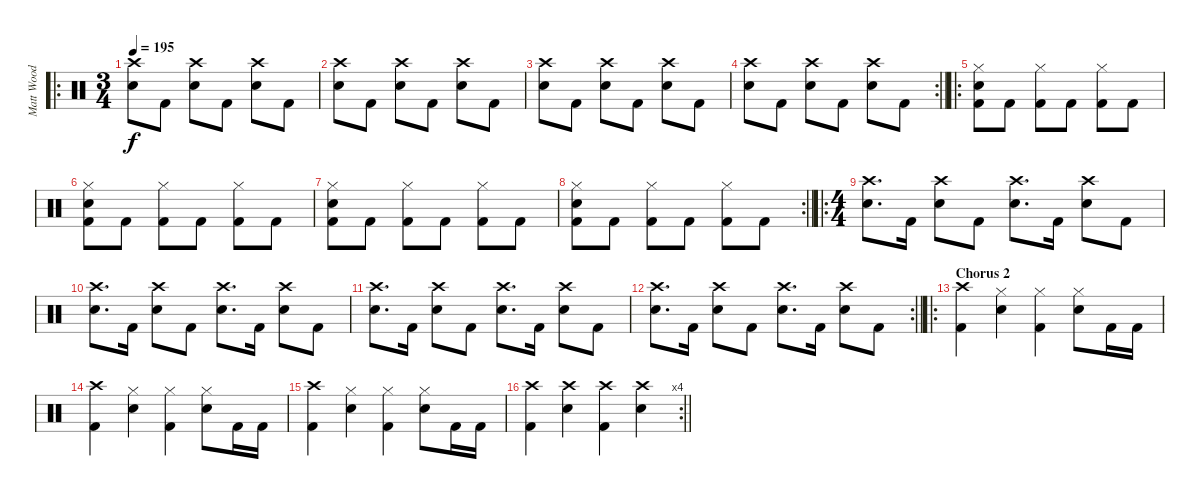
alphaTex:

\track ("Matt Wood" "Matt Wood") {instrument percussion}
\staff {score}
\articulation defaults
\ro
\ts (3 4)
\tempo 195
\clef neutral
\ks c
("Crash high (hit)" "Snare (hit) 2").8{dy f} "Kick (hit) 2".8 ("Crash high (hit)" "Snare (hit) 2").8 "Kick (hit) 2".8 ("Crash high (hit)" "Snare (hit) 2").8 "Kick (hit) 2".8 |
("Crash high (hit)" "Snare (hit) 2").8 "Kick (hit) 2".8 ("Crash high (hit)" "Snare (hit) 2").8 "Kick (hit) 2".8 ("Crash high (hit)" "Snare (hit) 2").8 "Kick (hit) 2".8 |
("Crash high (hit)" "Snare (hit) 2").8 "Kick (hit) 2".8 ("Crash high (hit)" "Snare (hit) 2").8 "Kick (hit) 2".8 ("Crash high (hit)" "Snare (hit) 2").8 "Kick (hit) 2".8 |
\rc 2
\barLineRight lightlight
("Crash high (hit)" "Snare (hit) 2").8 "Kick (hit) 2".8 ("Crash high (hit)" "Snare (hit) 2").8 "Kick (hit) 2".8 ("Crash high (hit)" "Snare (hit) 2").8 "Kick (hit) 2".8 |
\ro
("Hi-Hat (closed)" "Snare (hit) 2" "Kick (hit) 2").8 "Kick (hit) 2".8 ("Hi-Hat (closed)" "Kick (hit) 2").8 "Kick (hit) 2".8 ("Hi-Hat (closed)" "Kick (hit) 2").8 "Kick (hit) 2".8 |
("Hi-Hat (closed)" "Snare (hit) 2" "Kick (hit) 2").8 "Kick (hit) 2".8 ("Hi-Hat (closed)" "Kick (hit) 2").8 "Kick (hit) 2".8 ("Hi-Hat (closed)" "Kick (hit) 2").8 "Kick (hit) 2".8 |
("Hi-Hat (closed)" "Snare (hit) 2" "Kick (hit) 2").8 "Kick (hit) 2".8 ("Hi-Hat (closed)" "Kick (hit) 2").8 "Kick (hit) 2".8 ("Hi-Hat (closed)" "Kick (hit) 2").8 "Kick (hit) 2".8 |
\rc 2
\barLineRight lightlight
("Hi-Hat (closed)" "Snare (hit) 2" "Kick (hit) 2").8 "Kick (hit) 2".8 ("Hi-Hat (closed)" "Kick (hit) 2").8 "Kick (hit) 2".8 ("Hi-Hat (closed)" "Kick (hit) 2").8 "Kick (hit) 2".8 |
\ro
\ts (4 4)
("Crash high (hit)" "Snare (hit) 2").8{d} "Kick (hit) 2".16 ("Crash high (hit)" "Snare (hit) 2").8 "Kick (hit) 2".8 ("Crash high (hit)" "Snare (hit) 2").8{d} "Kick (hit) 2".16 ("Crash high (hit)" "Snare (hit) 2").8 "Kick (hit) 2".8 |
("Crash high (hit)" "Snare (hit) 2").8{d} "Kick (hit) 2".16 ("Crash high (hit)" "Snare (hit) 2").8 "Kick (hit) 2".8 ("Crash high (hit)" "Snare (hit) 2").8{d} "Kick (hit) 2".16 ("Crash high (hit)" "Snare (hit) 2").8 "Kick (hit) 2".8 |
("Crash high (hit)" "Snare (hit) 2").8{d} "Kick (hit) 2".16 ("Crash high (hit)" "Snare (hit) 2").8 "Kick (hit) 2".8 ("Crash high (hit)" "Snare (hit) 2").8{d} "Kick (hit) 2".16 ("Crash high (hit)" "Snare (hit) 2").8 "Kick (hit) 2".8 |
\rc 2
\barLineRight lightlight
("Crash high (hit)" "Snare (hit) 2").8{d} "Kick (hit) 2".16 ("Crash high (hit)" "Snare (hit) 2").8 "Kick (hit) 2".8 ("Crash high (hit)" "Snare (hit) 2").8{d} "Kick (hit) 2".16 ("Crash high (hit)" "Snare (hit) 2").8 "Kick (hit) 2".8 |
\ro
\section ("" "Chorus 2")
("Crash high (hit)" "Kick (hit) 2").4 ("Hi-Hat (closed)" "Snare (hit) 2").4 ("Hi-Hat (closed)" "Kick (hit) 2").4 ("Hi-Hat (closed)" "Snare (hit) 2").8 "Kick (hit) 2".16 "Kick (hit) 2".16 |
("Crash high (hit)" "Kick (hit) 2").4 ("Hi-Hat (closed)" "Snare (hit) 2").4 ("Hi-Hat (closed)" "Kick (hit) 2").4 ("Hi-Hat (closed)" "Snare (hit) 2").8 "Kick (hit) 2".16 "Kick (hit) 2".16 |
("Crash high (hit)" "Kick (hit) 2").4 ("Hi-Hat (closed)" "Snare (hit) 2").4 ("Hi-Hat (closed)" "Kick (hit) 2").4 ("Hi-Hat (closed)" "Snare (hit) 2").8 "Kick (hit) 2".16 "Kick (hit) 2".16 |
\rc 4
\barLineRight lightlight
("Crash high (hit)" "Kick (hit) 2").4 ("Crash high (hit)" "Snare (hit) 2").4 ("Crash high (hit)" "Kick (hit) 2").4 ("Crash high (hit)" "Snare (hit) 2").4
